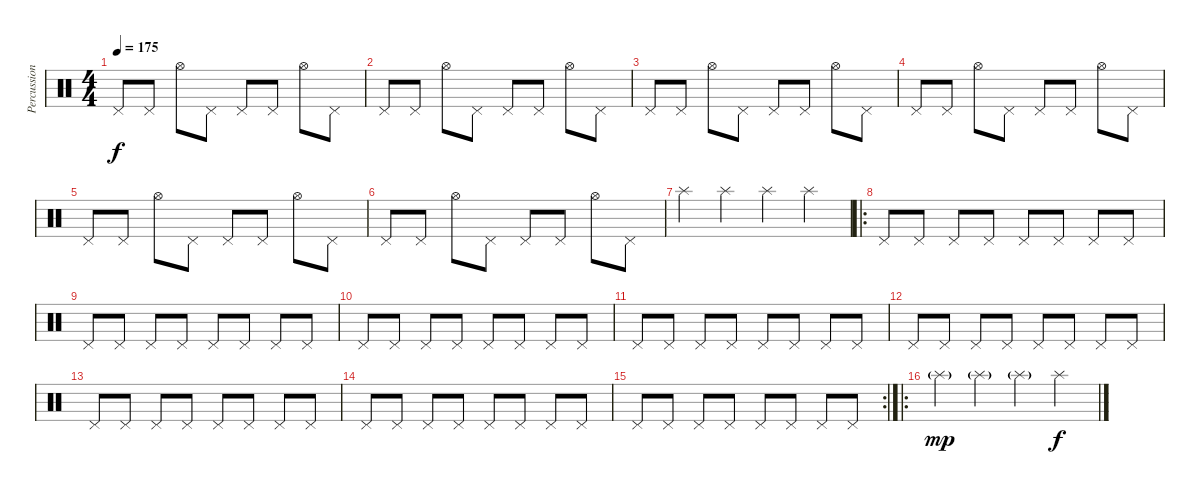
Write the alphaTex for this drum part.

\track ("Percussion" "Percussion") {instrument percussion}
\staff {score}
\articulation defaults
\ts (4 4)
\tempo 175
\clef neutral
\ks c "Pedal Hi-Hat (hit)".8{dy f} "Pedal Hi-Hat (hit)".8 "Hi-Hat (open)".8 "Pedal Hi-Hat (hit)".8 "Pedal Hi-Hat (hit)".8 "Pedal Hi-Hat (hit)".8 "Hi-Hat (open)".8 "Pedal Hi-Hat (hit)".8
|
"Pedal Hi-Hat (hit)".8 "Pedal Hi-Hat (hit)".8 "Hi-Hat (open)".8 "Pedal Hi-Hat (hit)".8 "Pedal Hi-Hat (hit)".8 "Pedal Hi-Hat (hit)".8 "Hi-Hat (open)".8 "Pedal Hi-Hat (hit)".8 |
"Pedal Hi-Hat (hit)".8 "Pedal Hi-Hat (hit)".8 "Hi-Hat (open)".8 "Pedal Hi-Hat (hit)".8 "Pedal Hi-Hat (hit)".8 "Pedal Hi-Hat (hit)".8 "Hi-Hat (open)".8 "Pedal Hi-Hat (hit)".8 |
"Pedal Hi-Hat (hit)".8 "Pedal Hi-Hat (hit)".8 "Hi-Hat (open)".8 "Pedal Hi-Hat (hit)".8 "Pedal Hi-Hat (hit)".8 "Pedal Hi-Hat (hit)".8 "Hi-Hat (open)".8 "Pedal Hi-Hat (hit)".8 |
"Pedal Hi-Hat (hit)".8 "Pedal Hi-Hat (hit)".8 "Hi-Hat (open)".8 "Pedal Hi-Hat (hit)".8 "Pedal Hi-Hat (hit)".8 "Pedal Hi-Hat (hit)".8 "Hi-Hat (open)".8 "Pedal Hi-Hat (hit)".8 |
"Pedal Hi-Hat (hit)".8 "Pedal Hi-Hat (hit)".8 "Hi-Hat (open)".8 "Pedal Hi-Hat (hit)".8 "Pedal Hi-Hat (hit)".8 "Pedal Hi-Hat (hit)".8 "Hi-Hat (open)".8 "Pedal Hi-Hat (hit)".8 |
"Splash (hit)".4 "Splash (hit)".4 "Splash (hit)".4 "Splash (hit)".4 |
\ro "Pedal Hi-Hat (hit)".8 "Pedal Hi-Hat (hit)".8 "Pedal Hi-Hat (hit)".8 "Pedal Hi-Hat (hit)".8 "Pedal Hi-Hat (hit)".8 "Pedal Hi-Hat (hit)".8 "Pedal Hi-Hat (hit)".8 "Pedal Hi-Hat (hit)".8
|
"Pedal Hi-Hat (hit)".8 "Pedal Hi-Hat (hit)".8 "Pedal Hi-Hat (hit)".8 "Pedal Hi-Hat (hit)".8 "Pedal Hi-Hat (hit)".8 "Pedal Hi-Hat (hit)".8 "Pedal Hi-Hat (hit)".8 "Pedal Hi-Hat (hit)".8 |
"Pedal Hi-Hat (hit)".8 "Pedal Hi-Hat (hit)".8 "Pedal Hi-Hat (hit)".8 "Pedal Hi-Hat (hit)".8 "Pedal Hi-Hat (hit)".8 "Pedal Hi-Hat (hit)".8 "Pedal Hi-Hat (hit)".8 "Pedal Hi-Hat (hit)".8 |
"Pedal Hi-Hat (hit)".8 "Pedal Hi-Hat (hit)".8 "Pedal Hi-Hat (hit)".8 "Pedal Hi-Hat (hit)".8 "Pedal Hi-Hat (hit)".8 "Pedal Hi-Hat (hit)".8 "Pedal Hi-Hat (hit)".8 "Pedal Hi-Hat (hit)".8 |
"Pedal Hi-Hat (hit)".8 "Pedal Hi-Hat (hit)".8 "Pedal Hi-Hat (hit)".8 "Pedal Hi-Hat (hit)".8 "Pedal Hi-Hat (hit)".8 "Pedal Hi-Hat (hit)".8 "Pedal Hi-Hat (hit)".8 "Pedal Hi-Hat (hit)".8 |
"Pedal Hi-Hat (hit)".8 "Pedal Hi-Hat (hit)".8 "Pedal Hi-Hat (hit)".8 "Pedal Hi-Hat (hit)".8 "Pedal Hi-Hat (hit)".8 "Pedal Hi-Hat (hit)".8 "Pedal Hi-Hat (hit)".8 "Pedal Hi-Hat (hit)".8 |
"Pedal Hi-Hat (hit)".8 "Pedal Hi-Hat (hit)".8 "Pedal Hi-Hat (hit)".8 "Pedal Hi-Hat (hit)".8 "Pedal Hi-Hat (hit)".8 "Pedal Hi-Hat (hit)".8 "Pedal Hi-Hat (hit)".8 "Pedal Hi-Hat (hit)".8 |
\rc 2 "Pedal Hi-Hat (hit)".8 "Pedal Hi-Hat (hit)".8 "Pedal Hi-Hat (hit)".8 "Pedal Hi-Hat (hit)".8 "Pedal Hi-Hat (hit)".8 "Pedal Hi-Hat (hit)".8 "Pedal Hi-Hat (hit)".8 "Pedal Hi-Hat (hit)".8
|
\ro "Splash (hit)"{g}.4{dy mp} "Splash (hit)"{g}.4 "Splash (hit)"{g}.4 "Splash (hit)".4{dy f}
